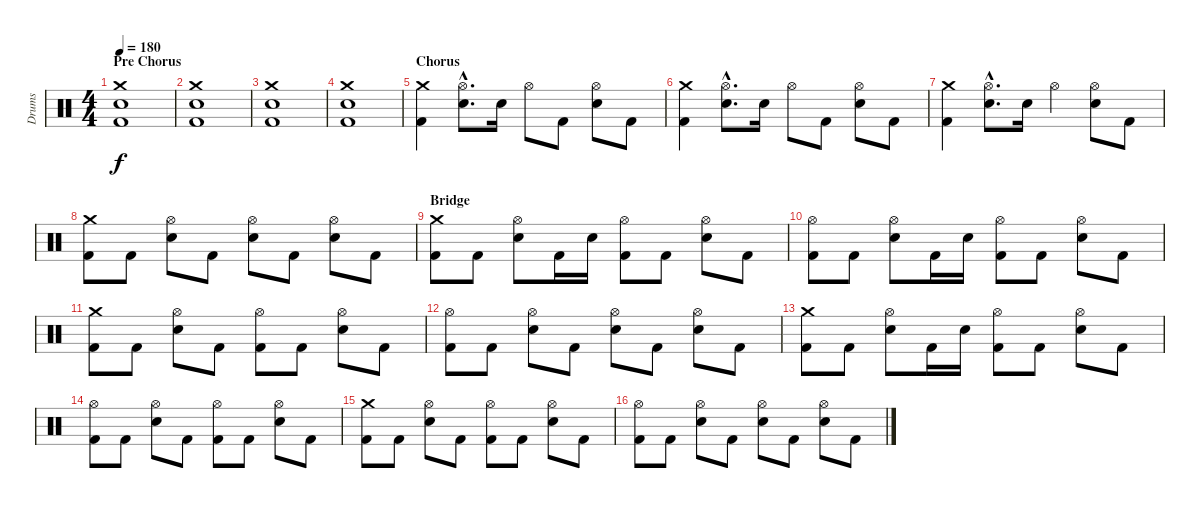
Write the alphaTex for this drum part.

\track ("Drums" "Drums") {instrument percussion}
\staff {score}
\articulation defaults
\ts (4 4)
\section ("" "Pre Chorus")
\tempo 180
\clef neutral
\ks c
("Crash medium (hit)" "Electric Snare (hit)" "Kick (hit) 2").1{dy f} |
("Crash medium (hit)" "Electric Snare (hit)" "Kick (hit) 2").1 |
("Crash medium (hit)" "Electric Snare (hit)" "Kick (hit) 2").1 |
("Crash medium (hit)" "Electric Snare (hit)" "Kick (hit) 2").1 |
\section ("" "Chorus")
("Crash medium (hit)" "Kick (hit) 2").4 ("Hi-Hat (open)"{hac} "Electric Snare (hit)"{hac}).8{d} "Electric Snare (hit)".16 "Hi-Hat (open)".8 "Kick (hit) 2".8 ("Hi-Hat (open)" "Electric Snare (hit)").8 "Kick (hit) 2".8 |
("Crash medium (hit)" "Kick (hit) 2").4 ("Hi-Hat (open)"{hac} "Electric Snare (hit)"{hac}).8{d} "Electric Snare (hit)".16 "Hi-Hat (open)".8 "Kick (hit) 2".8 ("Hi-Hat (open)" "Electric Snare (hit)").8 "Kick (hit) 2".8 |
("Crash medium (hit)" "Kick (hit) 2").4 ("Hi-Hat (open)"{hac} "Electric Snare (hit)"{hac}).8{d} "Electric Snare (hit)".16 "Hi-Hat (open)".4 ("Hi-Hat (open)" "Electric Snare (hit)").8 "Kick (hit) 2".8 |
("Crash medium (hit)" "Kick (hit) 2").8 "Kick (hit) 2".8 ("Hi-Hat (open)" "Electric Snare (hit)").8 "Kick (hit) 2".8 ("Hi-Hat (open)" "Electric Snare (hit)").8 "Kick (hit) 2".8 ("Hi-Hat (open)" "Electric Snare (hit)").8 "Kick (hit) 2".8 |
\section ("" "Bridge")
("Crash medium (hit)" "Kick (hit) 2").8 "Kick (hit) 2".8 ("Hi-Hat (open)" "Electric Snare (hit)").8 "Kick (hit) 2".16 "Electric Snare (hit)".16 ("Hi-Hat (open)" "Kick (hit) 2").8 "Kick (hit) 2".8 ("Hi-Hat (open)" "Electric Snare (hit)").8 "Kick (hit) 2".8 |
("Hi-Hat (open)" "Kick (hit) 2").8 "Kick (hit) 2".8 ("Hi-Hat (open)" "Electric Snare (hit)").8 "Kick (hit) 2".16 "Electric Snare (hit)".16 ("Hi-Hat (open)" "Kick (hit) 2").8 "Kick (hit) 2".8 ("Hi-Hat (open)" "Electric Snare (hit)").8 "Kick (hit) 2".8 |
("Crash medium (hit)" "Kick (hit) 2").8 "Kick (hit) 2".8 ("Hi-Hat (open)" "Electric Snare (hit)").8 "Kick (hit) 2".8 ("Hi-Hat (open)" "Kick (hit) 2").8 "Kick (hit) 2".8 ("Hi-Hat (open)" "Electric Snare (hit)").8 "Kick (hit) 2".8 |
("Hi-Hat (open)" "Kick (hit) 2").8 "Kick (hit) 2".8 ("Hi-Hat (open)" "Electric Snare (hit)").8 "Kick (hit) 2".8 ("Hi-Hat (open)" "Electric Snare (hit)").8 "Kick (hit) 2".8 ("Hi-Hat (open)" "Electric Snare (hit)").8 "Kick (hit) 2".8 |
("Crash medium (hit)" "Kick (hit) 2").8 "Kick (hit) 2".8 ("Hi-Hat (open)" "Electric Snare (hit)").8 "Kick (hit) 2".16 "Electric Snare (hit)".16 ("Hi-Hat (open)" "Kick (hit) 2").8 "Kick (hit) 2".8 ("Hi-Hat (open)" "Electric Snare (hit)").8 "Kick (hit) 2".8 |
("Hi-Hat (open)" "Kick (hit) 2").8 "Kick (hit) 2".8 ("Hi-Hat (open)" "Electric Snare (hit)").8 "Kick (hit) 2".8 ("Hi-Hat (open)" "Kick (hit) 2").8 "Kick (hit) 2".8 ("Hi-Hat (open)" "Electric Snare (hit)").8 "Kick (hit) 2".8 |
("Crash medium (hit)" "Kick (hit) 2").8 "Kick (hit) 2".8 ("Hi-Hat (open)" "Electric Snare (hit)").8 "Kick (hit) 2".8 ("Hi-Hat (open)" "Kick (hit) 2").8 "Kick (hit) 2".8 ("Hi-Hat (open)" "Electric Snare (hit)").8 "Kick (hit) 2".8 |
("Hi-Hat (open)" "Kick (hit) 2").8 "Kick (hit) 2".8 ("Hi-Hat (open)" "Electric Snare (hit)").8 "Kick (hit) 2".8 ("Hi-Hat (open)" "Electric Snare (hit)").8 "Kick (hit) 2".8 ("Hi-Hat (open)" "Electric Snare (hit)").8 "Kick (hit) 2".8
